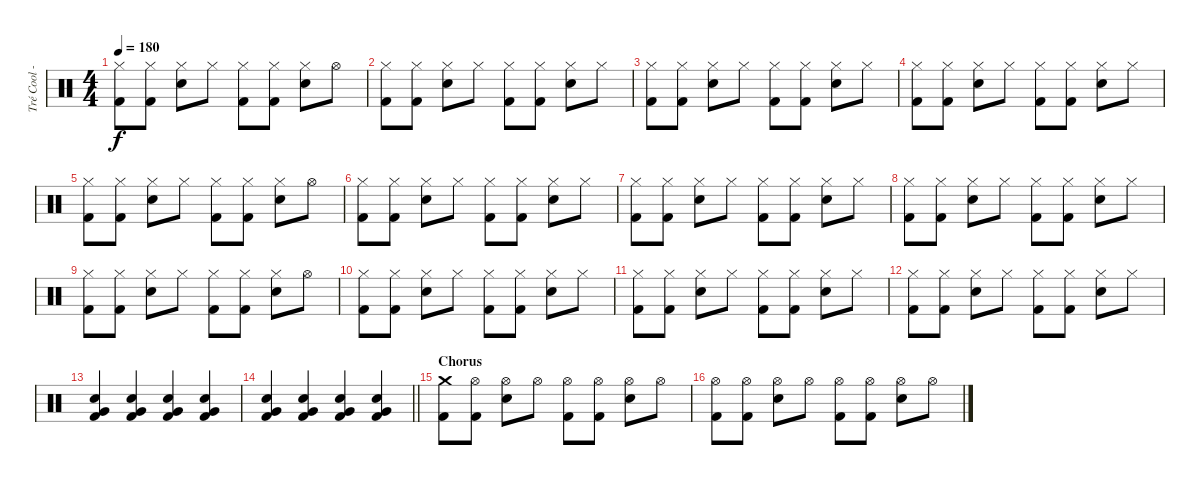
\track ("Tré Cool - Drums" "Tré Cool -") {instrument percussion}
\staff {score}
\articulation defaults
\ts (4 4)
\tempo 180
\clef neutral
\ks c
("Hi-Hat (closed)" "Kick (hit) 2").8{dy f} ("Hi-Hat (closed)" "Kick (hit) 2").8 ("Hi-Hat (closed)" "Electric Snare (hit)").8 "Hi-Hat (closed)".8 ("Hi-Hat (closed)" "Kick (hit) 2").8 ("Hi-Hat (closed)" "Kick (hit) 2").8 ("Hi-Hat (closed)" "Electric Snare (hit)").8 "Hi-Hat (open)".8 |
("Hi-Hat (closed)" "Kick (hit) 2").8 ("Hi-Hat (closed)" "Kick (hit) 2").8 ("Hi-Hat (closed)" "Electric Snare (hit)").8 "Hi-Hat (closed)".8 ("Hi-Hat (closed)" "Kick (hit) 2").8 ("Hi-Hat (closed)" "Kick (hit) 2").8 ("Hi-Hat (closed)" "Electric Snare (hit)").8 "Hi-Hat (closed)".8 |
("Hi-Hat (closed)" "Kick (hit) 2").8 ("Hi-Hat (closed)" "Kick (hit) 2").8 ("Hi-Hat (closed)" "Electric Snare (hit)").8 "Hi-Hat (closed)".8 ("Hi-Hat (closed)" "Kick (hit) 2").8 ("Hi-Hat (closed)" "Kick (hit) 2").8 ("Hi-Hat (closed)" "Electric Snare (hit)").8 "Hi-Hat (closed)".8 |
("Hi-Hat (closed)" "Kick (hit) 2").8 ("Hi-Hat (closed)" "Kick (hit) 2").8 ("Hi-Hat (closed)" "Electric Snare (hit)").8 "Hi-Hat (closed)".8 ("Hi-Hat (closed)" "Kick (hit) 2").8 ("Hi-Hat (closed)" "Kick (hit) 2").8 ("Hi-Hat (closed)" "Electric Snare (hit)").8 "Hi-Hat (closed)".8 |
("Hi-Hat (closed)" "Kick (hit) 2").8 ("Hi-Hat (closed)" "Kick (hit) 2").8 ("Hi-Hat (closed)" "Electric Snare (hit)").8 "Hi-Hat (closed)".8 ("Hi-Hat (closed)" "Kick (hit) 2").8 ("Hi-Hat (closed)" "Kick (hit) 2").8 ("Hi-Hat (closed)" "Electric Snare (hit)").8 "Hi-Hat (open)".8 |
("Hi-Hat (closed)" "Kick (hit) 2").8 ("Hi-Hat (closed)" "Kick (hit) 2").8 ("Hi-Hat (closed)" "Electric Snare (hit)").8 "Hi-Hat (closed)".8 ("Hi-Hat (closed)" "Kick (hit) 2").8 ("Hi-Hat (closed)" "Kick (hit) 2").8 ("Hi-Hat (closed)" "Electric Snare (hit)").8 "Hi-Hat (closed)".8 |
("Hi-Hat (closed)" "Kick (hit) 2").8 ("Hi-Hat (closed)" "Kick (hit) 2").8 ("Hi-Hat (closed)" "Electric Snare (hit)").8 "Hi-Hat (closed)".8 ("Hi-Hat (closed)" "Kick (hit) 2").8 ("Hi-Hat (closed)" "Kick (hit) 2").8 ("Hi-Hat (closed)" "Electric Snare (hit)").8 "Hi-Hat (closed)".8 |
("Hi-Hat (closed)" "Kick (hit) 2").8 ("Hi-Hat (closed)" "Kick (hit) 2").8 ("Hi-Hat (closed)" "Electric Snare (hit)").8 "Hi-Hat (closed)".8 ("Hi-Hat (closed)" "Kick (hit) 2").8 ("Hi-Hat (closed)" "Kick (hit) 2").8 ("Hi-Hat (closed)" "Electric Snare (hit)").8 "Hi-Hat (closed)".8 |
("Hi-Hat (closed)" "Kick (hit) 2").8 ("Hi-Hat (closed)" "Kick (hit) 2").8 ("Hi-Hat (closed)" "Electric Snare (hit)").8 "Hi-Hat (closed)".8 ("Hi-Hat (closed)" "Kick (hit) 2").8 ("Hi-Hat (closed)" "Kick (hit) 2").8 ("Hi-Hat (closed)" "Electric Snare (hit)").8 "Hi-Hat (open)".8 |
("Hi-Hat (closed)" "Kick (hit) 2").8 ("Hi-Hat (closed)" "Kick (hit) 2").8 ("Hi-Hat (closed)" "Electric Snare (hit)").8 "Hi-Hat (closed)".8 ("Hi-Hat (closed)" "Kick (hit) 2").8 ("Hi-Hat (closed)" "Kick (hit) 2").8 ("Hi-Hat (closed)" "Electric Snare (hit)").8 "Hi-Hat (closed)".8 |
("Hi-Hat (closed)" "Kick (hit) 2").8 ("Hi-Hat (closed)" "Kick (hit) 2").8 ("Hi-Hat (closed)" "Electric Snare (hit)").8 "Hi-Hat (closed)".8 ("Hi-Hat (closed)" "Kick (hit) 2").8 ("Hi-Hat (closed)" "Kick (hit) 2").8 ("Hi-Hat (closed)" "Electric Snare (hit)").8 "Hi-Hat (closed)".8 |
("Hi-Hat (closed)" "Kick (hit) 2").8 ("Hi-Hat (closed)" "Kick (hit) 2").8 ("Hi-Hat (closed)" "Electric Snare (hit)").8 "Hi-Hat (closed)".8 ("Hi-Hat (closed)" "Kick (hit) 2").8 ("Hi-Hat (closed)" "Kick (hit) 2").8 ("Hi-Hat (closed)" "Electric Snare (hit)").8 "Hi-Hat (closed)".8 |
("Very Low Tom (hit)" "Electric Snare (hit)" "Kick (hit) 2").4{volume 13 balance 8} ("Very Low Tom (hit)" "Electric Snare (hit)" "Kick (hit) 2").4 ("Very Low Tom (hit)" "Electric Snare (hit)" "Kick (hit) 2").4 ("Very Low Tom (hit)" "Electric Snare (hit)" "Kick (hit) 2").4 |
\barLineRight lightlight
("Very Low Tom (hit)" "Electric Snare (hit)" "Kick (hit) 2").4 ("Very Low Tom (hit)" "Electric Snare (hit)" "Kick (hit) 2").4 ("Very Low Tom (hit)" "Electric Snare (hit)" "Kick (hit) 2").4 ("Very Low Tom (hit)" "Electric Snare (hit)" "Kick (hit) 2").4 |
\section ("" "Chorus")
("Crash medium (hit)" "Kick (hit) 2").8 ("Hi-Hat (open)" "Kick (hit) 2").8 ("Hi-Hat (open)" "Electric Snare (hit)").8 "Hi-Hat (open)".8 ("Hi-Hat (open)" "Kick (hit) 2").8 ("Hi-Hat (open)" "Kick (hit) 2").8 ("Hi-Hat (open)" "Electric Snare (hit)").8 "Hi-Hat (open)".8 |
("Hi-Hat (open)" "Kick (hit) 2").8 ("Hi-Hat (open)" "Kick (hit) 2").8 ("Hi-Hat (open)" "Electric Snare (hit)").8 "Hi-Hat (open)".8 ("Hi-Hat (open)" "Kick (hit) 2").8 ("Hi-Hat (open)" "Kick (hit) 2").8 ("Hi-Hat (open)" "Electric Snare (hit)").8 "Hi-Hat (open)".8
